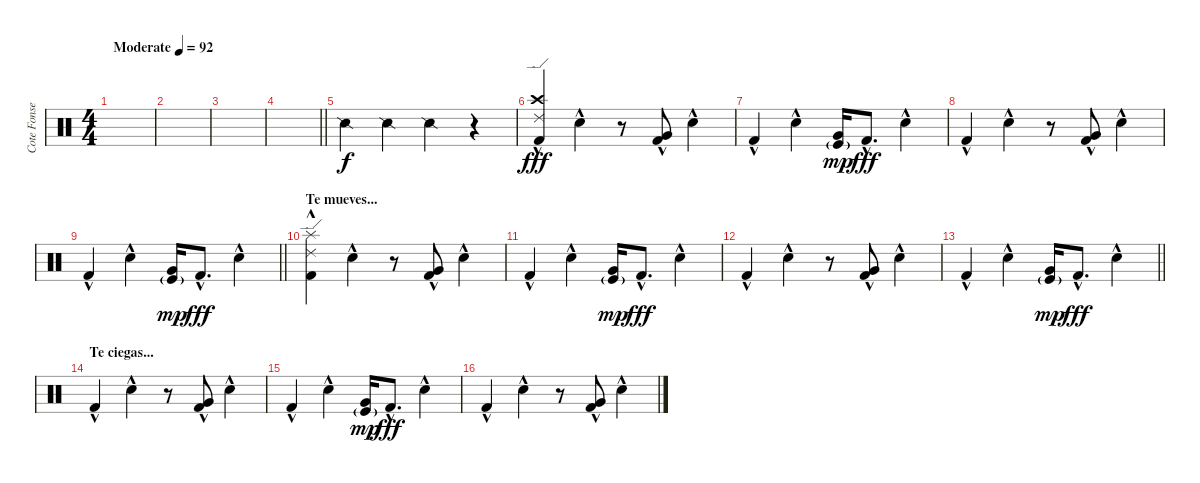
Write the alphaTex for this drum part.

\track ("Cote Fonsea" "Cote Fonse") {instrument percussion}
\staff {score}
\articulation defaults
\ts (4 4)
\tempo (92 "Moderate")
\clef neutral
\ks c
|
|
|
\barLineRight lightlight
|
"Snare (side stick) 2".4 "Snare (side stick) 2".4 "Snare (side stick) 2".4 r.4 |
("Ride (edge) 2" "Crash high (hit)" "Kick (hit) 2"{hac}).4{dy fff} "Snare (hit) 2"{hac}.4 r.8 ("Kick (hit) 2"{hac} "Very Low Tom (hit)"{hac}).8 "Snare (hit) 2"{hac}.4 |
"Kick (hit) 2"{hac}.4 "Snare (hit) 2"{hac}.4 ("Very Low Tom (hit)" "Kick (hit)"{g}).16{dy mp} "Kick (hit) 2"{hac}.8{d dy fff} "Snare (hit) 2"{hac}.4 |
"Kick (hit) 2"{hac}.4 "Snare (hit) 2"{hac}.4 r.8 ("Kick (hit) 2"{hac} "Very Low Tom (hit)"{hac}).8 "Snare (hit) 2"{hac}.4 |
\barLineRight lightlight "Kick (hit) 2"{hac}.4 "Snare (hit) 2"{hac}.4
("Very Low Tom (hit)" "Kick (hit)"{g}).16{dy mp} "Kick (hit) 2"{hac}.8{d dy fff} "Snare (hit) 2"{hac}.4 |
\section ("" "Te mueves...")
("Ride (edge) 2" "Splash (hit)" "Kick (hit) 2"{hac}).4 "Snare (hit) 2"{hac}.4 r.8 ("Kick (hit) 2"{hac} "Very Low Tom (hit)"{hac}).8 "Snare (hit) 2"{hac}.4 |
"Kick (hit) 2"{hac}.4 "Snare (hit) 2"{hac}.4 ("Very Low Tom (hit)" "Kick (hit)"{g}).16{dy mp} "Kick (hit) 2"{hac}.8{d dy fff} "Snare (hit) 2"{hac}.4 |
"Kick (hit) 2"{hac}.4 "Snare (hit) 2"{hac}.4 r.8 ("Kick (hit) 2"{hac} "Very Low Tom (hit)"{hac}).8 "Snare (hit) 2"{hac}.4 |
\barLineRight lightlight "Kick (hit) 2"{hac}.4 "Snare (hit) 2"{hac}.4
("Very Low Tom (hit)" "Kick (hit)"{g}).16{dy mp} "Kick (hit) 2"{hac}.8{d dy fff} "Snare (hit) 2"{hac}.4 |
\section ("" "Te ciegas...")
"Kick (hit) 2"{hac}.4 "Snare (hit) 2"{hac}.4 r.8 ("Kick (hit) 2"{hac} "Very Low Tom (hit)"{hac}).8 "Snare (hit) 2"{hac}.4 |
"Kick (hit) 2"{hac}.4 "Snare (hit) 2"{hac}.4 ("Very Low Tom (hit)" "Kick (hit)"{g}).16{dy mp} "Kick (hit) 2"{hac}.8{d dy fff} "Snare (hit) 2"{hac}.4 |
"Kick (hit) 2"{hac}.4 "Snare (hit) 2"{hac}.4 r.8 ("Kick (hit) 2"{hac} "Very Low Tom (hit)"{hac}).8 "Snare (hit) 2"{hac}.4
